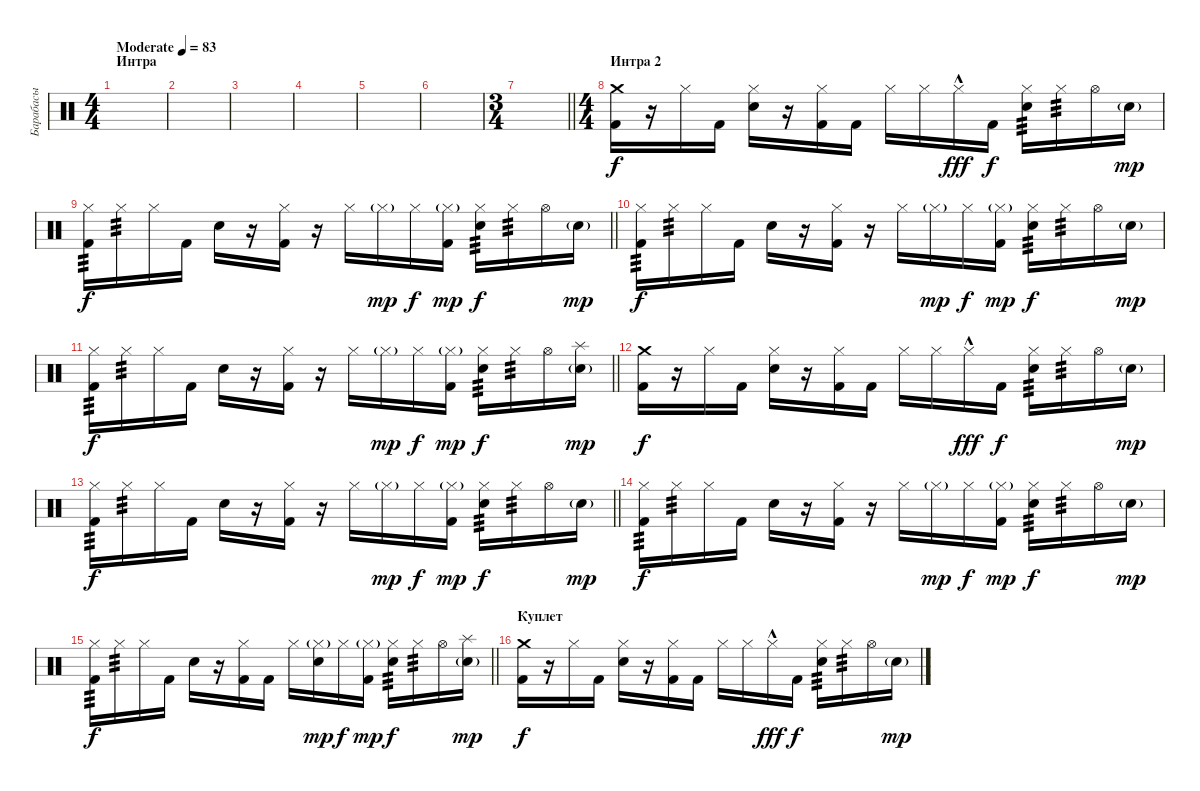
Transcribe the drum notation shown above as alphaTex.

\track ("Барабасы" "Барабасы") {instrument percussion}
\staff {score}
\articulation defaults
\ts (4 4)
\section ("" "Интра")
\tempo (83 "Moderate")
\clef neutral
\ks c
|
|
|
|
|
|
\ts (3 4)
\barLineRight lightlight
|
\ts (4 4)
\section ("" "Интра 2")
("Kick (hit) 2" "Crash medium (hit)").16 r.16 "Hi-Hat (closed)".16 "Kick (hit) 2".16 ("Electric Snare (hit)" "Hi-Hat (closed)").16 r.16 ("Kick (hit) 2" "Hi-Hat (closed)").16 "Kick (hit) 2".16 "Hi-Hat (closed)".16 "Hi-Hat (closed)".16 "Hi-Hat (closed)"{hac}.16{dy fff} "Kick (hit) 2".16{dy f} ("Electric Snare (hit)" "Hi-Hat (closed)").16{tp 3} "Hi-Hat (closed)".16{tp 3} "Hi-Hat (open)".16 "Electric Snare (hit)"{g}.16{dy mp} |
\barLineRight lightlight
("Kick (hit) 2" "Hi-Hat (closed)").16{tp 3 dy f} "Hi-Hat (closed)".16{tp 3} "Hi-Hat (closed)".16 "Kick (hit) 2".16 "Electric Snare (hit)".16 r.16 ("Kick (hit) 2" "Hi-Hat (closed)").16 r.16 "Hi-Hat (closed)".16 "Hi-Hat (closed)"{g}.16{dy mp} "Hi-Hat (closed)".16{dy f} ("Kick (hit) 2" "Hi-Hat (closed)"{g}).16{dy mp} ("Electric Snare (hit)" "Hi-Hat (closed)").16{tp 3 dy f} "Hi-Hat (closed)".16{tp 3} "Hi-Hat (open)".16 "Electric Snare (hit)"{g}.16{dy mp} |
("Kick (hit) 2" "Hi-Hat (closed)").16{tp 3 dy f} "Hi-Hat (closed)".16{tp 3} "Hi-Hat (closed)".16 "Kick (hit) 2".16 "Electric Snare (hit)".16 r.16 ("Kick (hit) 2" "Hi-Hat (closed)").16 r.16 "Hi-Hat (closed)".16 "Hi-Hat (closed)"{g}.16{dy mp} "Hi-Hat (closed)".16{dy f} ("Kick (hit) 2" "Hi-Hat (closed)"{g}).16{dy mp} ("Electric Snare (hit)" "Hi-Hat (closed)").16{tp 3 dy f} "Hi-Hat (closed)".16{tp 3} "Hi-Hat (open)".16 "Electric Snare (hit)"{g}.16{dy mp} |
\barLineRight lightlight
("Kick (hit) 2" "Hi-Hat (closed)").16{tp 3 dy f} "Hi-Hat (closed)".16{tp 3} "Hi-Hat (closed)".16 "Kick (hit) 2".16 "Electric Snare (hit)".16 r.16 ("Kick (hit) 2" "Hi-Hat (closed)").16 r.16 "Hi-Hat (closed)".16 "Hi-Hat (closed)"{g}.16{dy mp} "Hi-Hat (closed)".16{dy f} ("Kick (hit) 2" "Hi-Hat (closed)"{g}).16{dy mp} ("Electric Snare (hit)" "Hi-Hat (closed)").16{tp 3 dy f} "Hi-Hat (closed)".16{tp 3} "Hi-Hat (open)".16 ("Electric Snare (hit)"{g} "Splash (hit)").16{dy mp} |
("Kick (hit) 2" "Crash medium (hit)").16{dy f} r.16 "Hi-Hat (closed)".16 "Kick (hit) 2".16 ("Electric Snare (hit)" "Hi-Hat (closed)").16 r.16 ("Kick (hit) 2" "Hi-Hat (closed)").16 "Kick (hit) 2".16 "Hi-Hat (closed)".16 "Hi-Hat (closed)".16 "Hi-Hat (closed)"{hac}.16{dy fff} "Kick (hit) 2".16{dy f} ("Electric Snare (hit)" "Hi-Hat (closed)").16{tp 3} "Hi-Hat (closed)".16{tp 3} "Hi-Hat (open)".16 "Electric Snare (hit)"{g}.16{dy mp} |
\barLineRight lightlight
("Kick (hit) 2" "Hi-Hat (closed)").16{tp 3 dy f} "Hi-Hat (closed)".16{tp 3} "Hi-Hat (closed)".16 "Kick (hit) 2".16 "Electric Snare (hit)".16 r.16 ("Kick (hit) 2" "Hi-Hat (closed)").16 r.16 "Hi-Hat (closed)".16 "Hi-Hat (closed)"{g}.16{dy mp} "Hi-Hat (closed)".16{dy f} ("Kick (hit) 2" "Hi-Hat (closed)"{g}).16{dy mp} ("Electric Snare (hit)" "Hi-Hat (closed)").16{tp 3 dy f} "Hi-Hat (closed)".16{tp 3} "Hi-Hat (open)".16 "Electric Snare (hit)"{g}.16{dy mp} |
("Kick (hit) 2" "Hi-Hat (closed)").16{tp 3 dy f} "Hi-Hat (closed)".16{tp 3} "Hi-Hat (closed)".16 "Kick (hit) 2".16 "Electric Snare (hit)".16 r.16 ("Kick (hit) 2" "Hi-Hat (closed)").16 r.16 "Hi-Hat (closed)".16 "Hi-Hat (closed)"{g}.16{dy mp} "Hi-Hat (closed)".16{dy f} ("Kick (hit) 2" "Hi-Hat (closed)"{g}).16{dy mp} ("Electric Snare (hit)" "Hi-Hat (closed)").16{tp 3 dy f} "Hi-Hat (closed)".16{tp 3} "Hi-Hat (open)".16 "Electric Snare (hit)"{g}.16{dy mp} |
\barLineRight lightlight
("Kick (hit) 2" "Hi-Hat (closed)").16{tp 3 dy f} "Hi-Hat (closed)".16{tp 3} "Hi-Hat (closed)".16 "Kick (hit) 2".16 "Electric Snare (hit)".16 r.16 ("Kick (hit) 2" "Hi-Hat (closed)").16 "Kick (hit) 2".16 "Hi-Hat (closed)".16 ("Hi-Hat (closed)"{g} "Electric Snare (hit)").16{dy mp} "Hi-Hat (closed)".16{dy f} ("Kick (hit) 2" "Hi-Hat (closed)"{g}).16{dy mp} ("Electric Snare (hit)" "Hi-Hat (closed)").16{tp 3 dy f} "Hi-Hat (closed)".16{tp 3} "Hi-Hat (open)".16 ("Electric Snare (hit)"{g} "Splash (hit)").16{dy mp} |
\section ("" "Куплет")
("Kick (hit) 2" "Crash medium (hit)").16{dy f} r.16 "Hi-Hat (closed)".16 "Kick (hit) 2".16 ("Electric Snare (hit)" "Hi-Hat (closed)").16 r.16 ("Kick (hit) 2" "Hi-Hat (closed)").16 "Kick (hit) 2".16 "Hi-Hat (closed)".16 "Hi-Hat (closed)".16 "Hi-Hat (closed)"{hac}.16{dy fff} "Kick (hit) 2".16{dy f} ("Electric Snare (hit)" "Hi-Hat (closed)").16{tp 3} "Hi-Hat (closed)".16{tp 3} "Hi-Hat (open)".16 "Electric Snare (hit)"{g}.16{dy mp}
